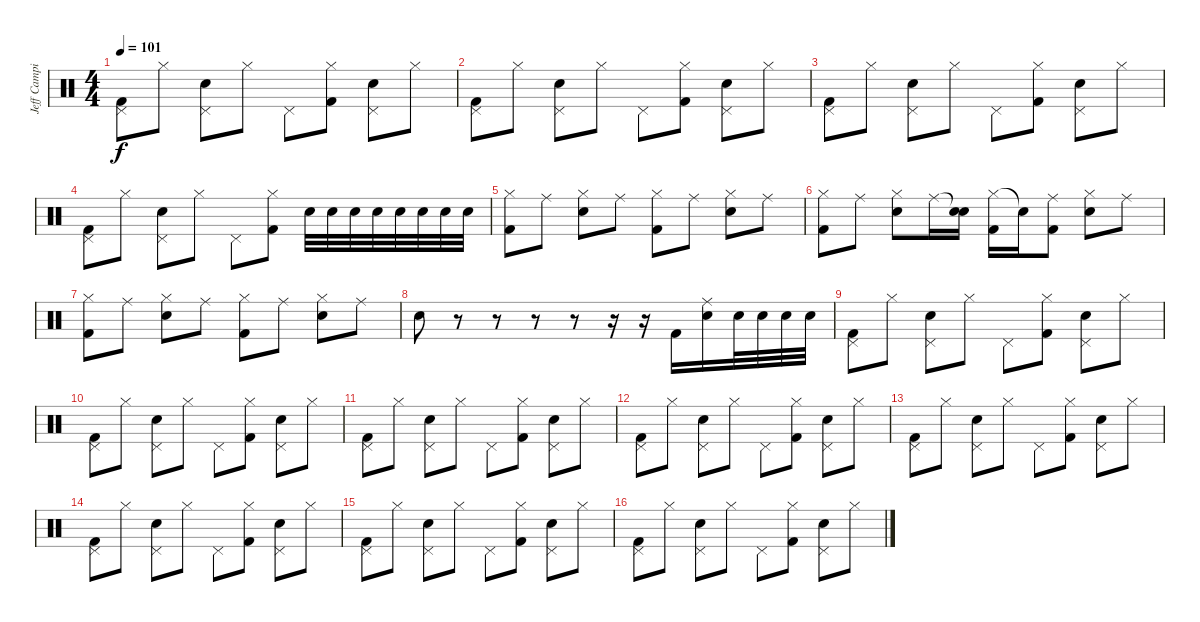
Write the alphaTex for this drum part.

\track ("Jeff Campitelli " "Jeff Campi") {instrument percussion}
\staff {score}
\articulation defaults
\ts (4 4)
\tempo 101
\clef neutral
\ks c
("Pedal Hi-Hat (hit)" "Kick (hit) 2").8{dy f} "Hi-Hat (closed)".8 ("Pedal Hi-Hat (hit)" "Electric Snare (hit)").8 "Hi-Hat (closed)".8 "Pedal Hi-Hat (hit)".8 ("Hi-Hat (closed)" "Kick (hit) 2").8 ("Pedal Hi-Hat (hit)" "Electric Snare (hit)").8 "Hi-Hat (closed)".8 |
("Pedal Hi-Hat (hit)" "Kick (hit) 2").8 "Hi-Hat (closed)".8 ("Pedal Hi-Hat (hit)" "Electric Snare (hit)").8 "Hi-Hat (closed)".8 "Pedal Hi-Hat (hit)".8 ("Hi-Hat (closed)" "Kick (hit) 2").8 ("Pedal Hi-Hat (hit)" "Electric Snare (hit)").8 "Hi-Hat (closed)".8 |
("Pedal Hi-Hat (hit)" "Kick (hit) 2").8 "Hi-Hat (closed)".8 ("Pedal Hi-Hat (hit)" "Electric Snare (hit)").8 "Hi-Hat (closed)".8 "Pedal Hi-Hat (hit)".8 ("Hi-Hat (closed)" "Kick (hit) 2").8 ("Pedal Hi-Hat (hit)" "Electric Snare (hit)").8 "Hi-Hat (closed)".8 |
("Pedal Hi-Hat (hit)" "Kick (hit) 2").8 "Hi-Hat (closed)".8 ("Pedal Hi-Hat (hit)" "Electric Snare (hit)").8 "Hi-Hat (closed)".8 "Pedal Hi-Hat (hit)".8 ("Hi-Hat (closed)" "Kick (hit) 2").8 "Electric Snare (hit)".32 "Electric Snare (hit)".32 "Electric Snare (hit)".32 "Electric Snare (hit)".32 "Electric Snare (hit)".32 "Electric Snare (hit)".32 "Electric Snare (hit)".32 "Electric Snare (hit)".32 |
("Hi-Hat (closed)" "Kick (hit) 2").8 "Ride (middle)".8 ("Hi-Hat (closed)" "Electric Snare (hit)").8 "Ride (middle)".8 ("Hi-Hat (closed)" "Kick (hit) 2").8 "Ride (middle)".8 ("Hi-Hat (closed)" "Electric Snare (hit)").8 "Ride (middle)".8 |
("Hi-Hat (closed)" "Kick (hit) 2").8 "Ride (middle)".8 ("Hi-Hat (closed)" "Electric Snare (hit)").8 "Ride (middle)".16 ("Snare (hit)"{t} "Electric Snare (hit)").16 ("Hi-Hat (closed)" "Kick (hit) 2").16 "Snare (hit)"{t}.16 ("Ride (middle)" "Kick (hit) 2").8 ("Hi-Hat (closed)" "Electric Snare (hit)").8 "Ride (middle)".8 |
("Hi-Hat (closed)" "Kick (hit) 2").8 "Ride (middle)".8 ("Hi-Hat (closed)" "Electric Snare (hit)").8 "Ride (middle)".8 ("Hi-Hat (closed)" "Kick (hit) 2").8 "Ride (middle)".8 ("Hi-Hat (closed)" "Electric Snare (hit)").8 "Ride (middle)".8 |
"Electric Snare (hit)".8 r.8 r.8 r.8 r.8 r.16 r.16 "Kick (hit) 2".16 ("Ride (middle)" "Electric Snare (hit)").16 "Electric Snare (hit)".32 "Electric Snare (hit)".32 "Electric Snare (hit)".32 "Electric Snare (hit)".32 |
("Pedal Hi-Hat (hit)" "Kick (hit) 2").8 "Hi-Hat (closed)".8 ("Pedal Hi-Hat (hit)" "Electric Snare (hit)").8 "Hi-Hat (closed)".8 "Pedal Hi-Hat (hit)".8 ("Hi-Hat (closed)" "Kick (hit) 2").8 ("Pedal Hi-Hat (hit)" "Electric Snare (hit)").8 "Hi-Hat (closed)".8 |
("Pedal Hi-Hat (hit)" "Kick (hit) 2").8 "Hi-Hat (closed)".8 ("Pedal Hi-Hat (hit)" "Electric Snare (hit)").8 "Hi-Hat (closed)".8 "Pedal Hi-Hat (hit)".8 ("Hi-Hat (closed)" "Kick (hit) 2").8 ("Pedal Hi-Hat (hit)" "Electric Snare (hit)").8 "Hi-Hat (closed)".8 |
("Pedal Hi-Hat (hit)" "Kick (hit) 2").8 "Hi-Hat (closed)".8 ("Pedal Hi-Hat (hit)" "Electric Snare (hit)").8 "Hi-Hat (closed)".8 "Pedal Hi-Hat (hit)".8 ("Hi-Hat (closed)" "Kick (hit) 2").8 ("Pedal Hi-Hat (hit)" "Electric Snare (hit)").8 "Hi-Hat (closed)".8 |
("Pedal Hi-Hat (hit)" "Kick (hit) 2").8 "Hi-Hat (closed)".8 ("Pedal Hi-Hat (hit)" "Electric Snare (hit)").8 "Hi-Hat (closed)".8 "Pedal Hi-Hat (hit)".8 ("Hi-Hat (closed)" "Kick (hit) 2").8 ("Pedal Hi-Hat (hit)" "Electric Snare (hit)").8 "Hi-Hat (closed)".8 |
("Pedal Hi-Hat (hit)" "Kick (hit) 2").8 "Hi-Hat (closed)".8 ("Pedal Hi-Hat (hit)" "Electric Snare (hit)").8 "Hi-Hat (closed)".8 "Pedal Hi-Hat (hit)".8 ("Hi-Hat (closed)" "Kick (hit) 2").8 ("Pedal Hi-Hat (hit)" "Electric Snare (hit)").8 "Hi-Hat (closed)".8 |
("Pedal Hi-Hat (hit)" "Kick (hit) 2").8 "Hi-Hat (closed)".8 ("Pedal Hi-Hat (hit)" "Electric Snare (hit)").8 "Hi-Hat (closed)".8 "Pedal Hi-Hat (hit)".8 ("Hi-Hat (closed)" "Kick (hit) 2").8 ("Pedal Hi-Hat (hit)" "Electric Snare (hit)").8 "Hi-Hat (closed)".8 |
("Pedal Hi-Hat (hit)" "Kick (hit) 2").8 "Hi-Hat (closed)".8 ("Pedal Hi-Hat (hit)" "Electric Snare (hit)").8 "Hi-Hat (closed)".8 "Pedal Hi-Hat (hit)".8 ("Hi-Hat (closed)" "Kick (hit) 2").8 ("Pedal Hi-Hat (hit)" "Electric Snare (hit)").8 "Hi-Hat (closed)".8 |
("Pedal Hi-Hat (hit)" "Kick (hit) 2").8 "Hi-Hat (closed)".8 ("Pedal Hi-Hat (hit)" "Electric Snare (hit)").8 "Hi-Hat (closed)".8 "Pedal Hi-Hat (hit)".8 ("Hi-Hat (closed)" "Kick (hit) 2").8 ("Pedal Hi-Hat (hit)" "Electric Snare (hit)").8 "Hi-Hat (closed)".8
